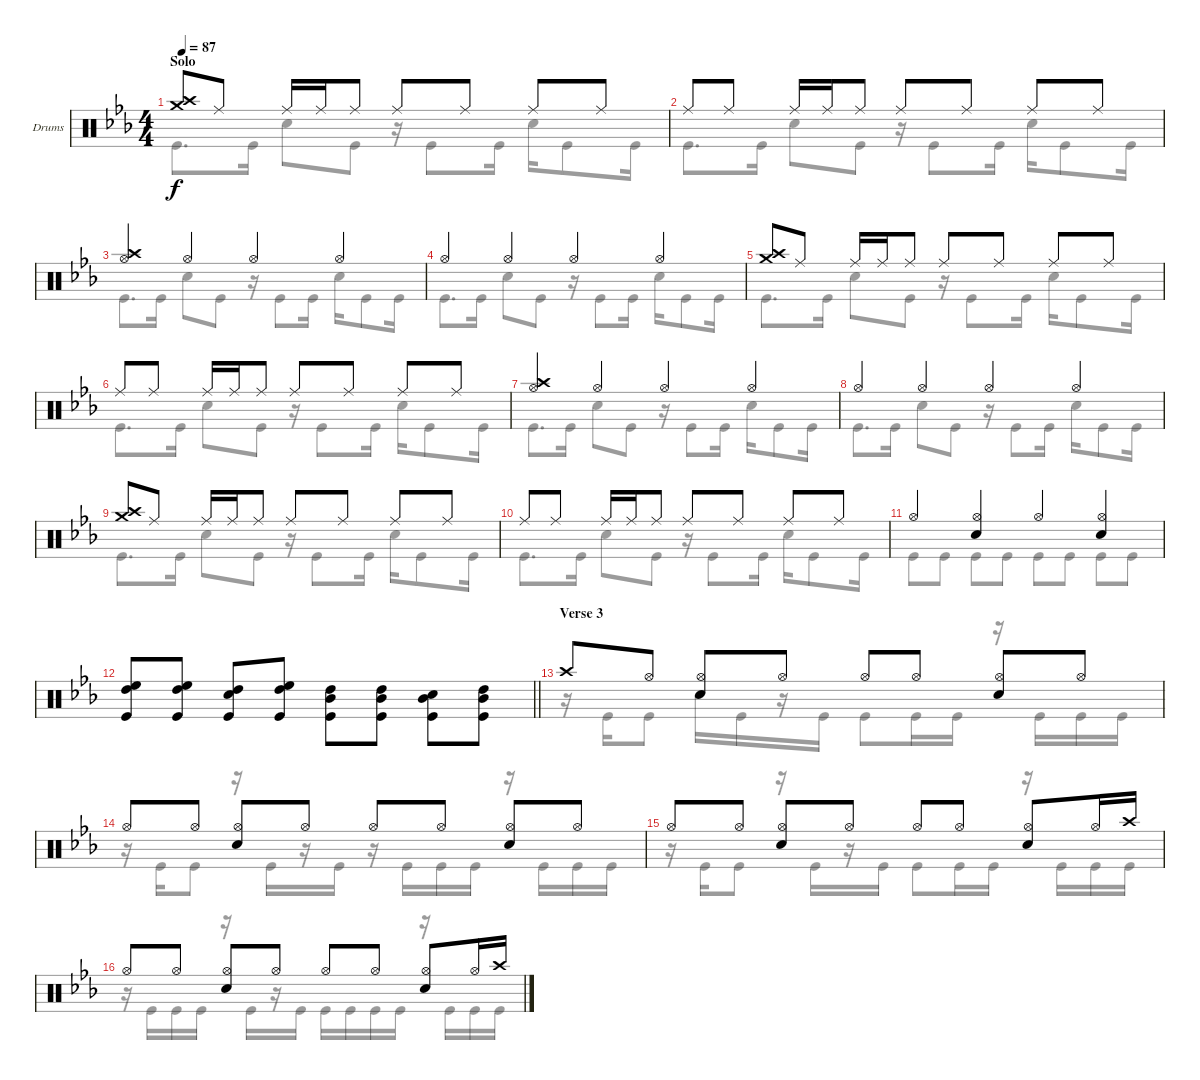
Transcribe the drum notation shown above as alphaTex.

\bracketExtendMode groupsimilarinstruments
\firstSystemTrackNameOrientation horizontal
\otherSystemsTrackNameOrientation horizontal
\track ("Mike Wengren" "Drums") {instrument percussion}
\staff {score}
\articulation defaults
\voice
\ts (4 4)
\section ("" "Solo")
\tempo 87
\clef neutral
\ks cminor
("Crash medium (hit)" "Crash high (hit)").8{dy f} "Ride (middle)".8 "Ride (middle)".16 "Ride (middle)".16 "Ride (middle)".8 "Ride (middle)".8 "Ride (middle)".8 "Ride (middle)".8 "Ride (middle)".8 |
"Ride (middle)".8 "Ride (middle)".8 "Ride (middle)".16 "Ride (middle)".16 "Ride (middle)".8 "Ride (middle)".8 "Ride (middle)".8 "Ride (middle)".8 "Ride (middle)".8 |
("Hi-Hat (open)" "Crash high (hit)").4 "Hi-Hat (open)".4 "Hi-Hat (open)".4 "Hi-Hat (open)".4 |
"Hi-Hat (open)".4 "Hi-Hat (open)".4 "Hi-Hat (open)".4 "Hi-Hat (open)".4 |
("Crash medium (hit)" "Crash high (hit)").8 "Ride (middle)".8 "Ride (middle)".16 "Ride (middle)".16 "Ride (middle)".8 "Ride (middle)".8 "Ride (middle)".8 "Ride (middle)".8 "Ride (middle)".8 |
"Ride (middle)".8 "Ride (middle)".8 "Ride (middle)".16 "Ride (middle)".16 "Ride (middle)".8 "Ride (middle)".8 "Ride (middle)".8 "Ride (middle)".8 "Ride (middle)".8 |
("Hi-Hat (open)" "Crash high (hit)").4 "Hi-Hat (open)".4 "Hi-Hat (open)".4 "Hi-Hat (open)".4 |
"Hi-Hat (open)".4 "Hi-Hat (open)".4 "Hi-Hat (open)".4 "Hi-Hat (open)".4 |
("Crash medium (hit)" "Crash high (hit)").8 "Ride (middle)".8 "Ride (middle)".16 "Ride (middle)".16 "Ride (middle)".8 "Ride (middle)".8 "Ride (middle)".8 "Ride (middle)".8 "Ride (middle)".8 |
"Ride (middle)".8 "Ride (middle)".8 "Ride (middle)".16 "Ride (middle)".16 "Ride (middle)".8 "Ride (middle)".8 "Ride (middle)".8 "Ride (middle)".8 "Ride (middle)".8 |
"Hi-Hat (open)".4 ("Hi-Hat (open)" "Snare (hit) 2").4 "Hi-Hat (open)".4 ("Hi-Hat (open)" "Snare (hit) 2").4 |
\barLineRight lightlight
("High Floor Tom (hit)" "High Tom (hit)" "Kick (hit)").8 ("High Floor Tom (hit)" "High Tom (hit)" "Kick (hit)").8 ("High Tom (hit)" "Snare (hit) 2" "Kick (hit)").8 ("High Floor Tom (hit)" "High Tom (hit)" "Kick (hit)").8 ("High Tom (hit)" "Mid Tom (hit)" "Kick (hit)").8 ("High Tom (hit)" "Mid Tom (hit)" "Kick (hit)").8 ("Mid Tom (hit)" "Snare (hit) 2" "Kick (hit)").8 ("High Tom (hit)" "Mid Tom (hit)" "Kick (hit)").8 |
\section ("" "Verse 3")
"Crash high (hit)".8 "Hi-Hat (open)".8 ("Hi-Hat (open)" "Snare (hit) 2").8 "Hi-Hat (open)".8 "Hi-Hat (open)".8 "Hi-Hat (open)".8 ("Hi-Hat (open)" "Snare (hit) 2").8 "Hi-Hat (open)".8 |
"Hi-Hat (open)".8 "Hi-Hat (open)".8 ("Hi-Hat (open)" "Snare (hit) 2").8 "Hi-Hat (open)".8 "Hi-Hat (open)".8 "Hi-Hat (open)".8 ("Hi-Hat (open)" "Snare (hit) 2").8 "Hi-Hat (open)".8 |
"Hi-Hat (open)".8 "Hi-Hat (open)".8 ("Hi-Hat (open)" "Snare (hit) 2").8 "Hi-Hat (open)".8 "Hi-Hat (open)".8 "Hi-Hat (open)".8 ("Hi-Hat (open)" "Snare (hit) 2").8 "Hi-Hat (open)".16 "Crash high (hit)".16 |
"Hi-Hat (open)".8 "Hi-Hat (open)".8 ("Hi-Hat (open)" "Snare (hit) 2").8 "Hi-Hat (open)".8 "Hi-Hat (open)".8 "Hi-Hat (open)".8 ("Hi-Hat (open)" "Snare (hit) 2").8 "Hi-Hat (open)".16 "Crash high (hit)".16
\voice
\clef neutral
\ottava regular
\simile none
\ks cminor "Kick (hit)".8{d dy f} "Kick (hit)".16 "Snare (hit) 2".8 "Kick (hit)".8
r.16 "Kick (hit)".8 "Kick (hit)".16 "Snare (hit) 2".16 "Kick (hit)".8 "Kick (hit)".16 |
"Kick (hit)".8{d} "Kick (hit)".16 "Snare (hit) 2".8 "Kick (hit)".8 r.16 "Kick (hit)".8 "Kick (hit)".16 "Snare (hit) 2".16 "Kick (hit)".8 "Kick (hit)".16 |
"Kick (hit)".8{d} "Kick (hit)".16 "Snare (hit) 2".8 "Kick (hit)".8 r.16 "Kick (hit)".8 "Kick (hit)".16 "Snare (hit) 2".16 "Kick (hit)".8 "Kick (hit)".16 |
"Kick (hit)".8{d} "Kick (hit)".16 "Snare (hit) 2".8 "Kick (hit)".8 r.16 "Kick (hit)".8 "Kick (hit)".16 "Snare (hit) 2".16 "Kick (hit)".8 "Kick (hit)".16 |
"Kick (hit)".8{d} "Kick (hit)".16 "Snare (hit) 2".8 "Kick (hit)".8 r.16 "Kick (hit)".8 "Kick (hit)".16 "Snare (hit) 2".16 "Kick (hit)".8 "Kick (hit)".16 |
"Kick (hit)".8{d} "Kick (hit)".16 "Snare (hit) 2".8 "Kick (hit)".8 r.16 "Kick (hit)".8 "Kick (hit)".16 "Snare (hit) 2".16 "Kick (hit)".8 "Kick (hit)".16 |
"Kick (hit)".8{d} "Kick (hit)".16 "Snare (hit) 2".8 "Kick (hit)".8 r.16 "Kick (hit)".8 "Kick (hit)".16 "Snare (hit) 2".16 "Kick (hit)".8 "Kick (hit)".16 |
"Kick (hit)".8{d} "Kick (hit)".16 "Snare (hit) 2".8 "Kick (hit)".8 r.16 "Kick (hit)".8 "Kick (hit)".16 "Snare (hit) 2".16 "Kick (hit)".8 "Kick (hit)".16 |
"Kick (hit)".8{d} "Kick (hit)".16 "Snare (hit) 2".8 "Kick (hit)".8 r.16 "Kick (hit)".8 "Kick (hit)".16 "Snare (hit) 2".16 "Kick (hit)".8 "Kick (hit)".16 |
"Kick (hit)".8{d} "Kick (hit)".16 "Snare (hit) 2".8 "Kick (hit)".8 r.16 "Kick (hit)".8 "Kick (hit)".16 "Snare (hit) 2".16 "Kick (hit)".8 "Kick (hit)".16 |
"Kick (hit)".8 "Kick (hit)".8 "Kick (hit)".8 "Kick (hit)".8 "Kick (hit)".8 "Kick (hit)".8 "Kick (hit)".8 "Kick (hit)".8 |
\barLineRight lightlight
|
r.16 "Kick (hit)".16 "Kick (hit)".8 "Snare (hit) 2".16 "Kick (hit)".16 r.16 "Kick (hit)".16 "Kick (hit)".8 "Kick (hit)".16 "Kick (hit)".16 r.16 "Kick (hit)".16 "Kick (hit)".16 "Kick (hit)".16 |
r.16 "Kick (hit)".16 "Kick (hit)".8 r.16 "Kick (hit)".16 r.16 "Kick (hit)".16 r.16 "Kick (hit)".16 "Kick (hit)".16 "Kick (hit)".16 r.16 "Kick (hit)".16 "Kick (hit)".16 "Kick (hit)".16 |
r.16 "Kick (hit)".16 "Kick (hit)".8 r.16 "Kick (hit)".16 r.16 "Kick (hit)".16 "Kick (hit)".8 "Kick (hit)".16 "Kick (hit)".16 r.16 "Kick (hit)".16 "Kick (hit)".16 "Kick (hit)".16 |
r.16 "Kick (hit)".16 "Kick (hit)".16 "Kick (hit)".16 r.16 "Kick (hit)".16 r.16 "Kick (hit)".16 "Kick (hit)".16 "Kick (hit)".16 "Kick (hit)".16 "Kick (hit)".16 r.16 "Kick (hit)".16 "Kick (hit)".16 "Kick (hit)".16
